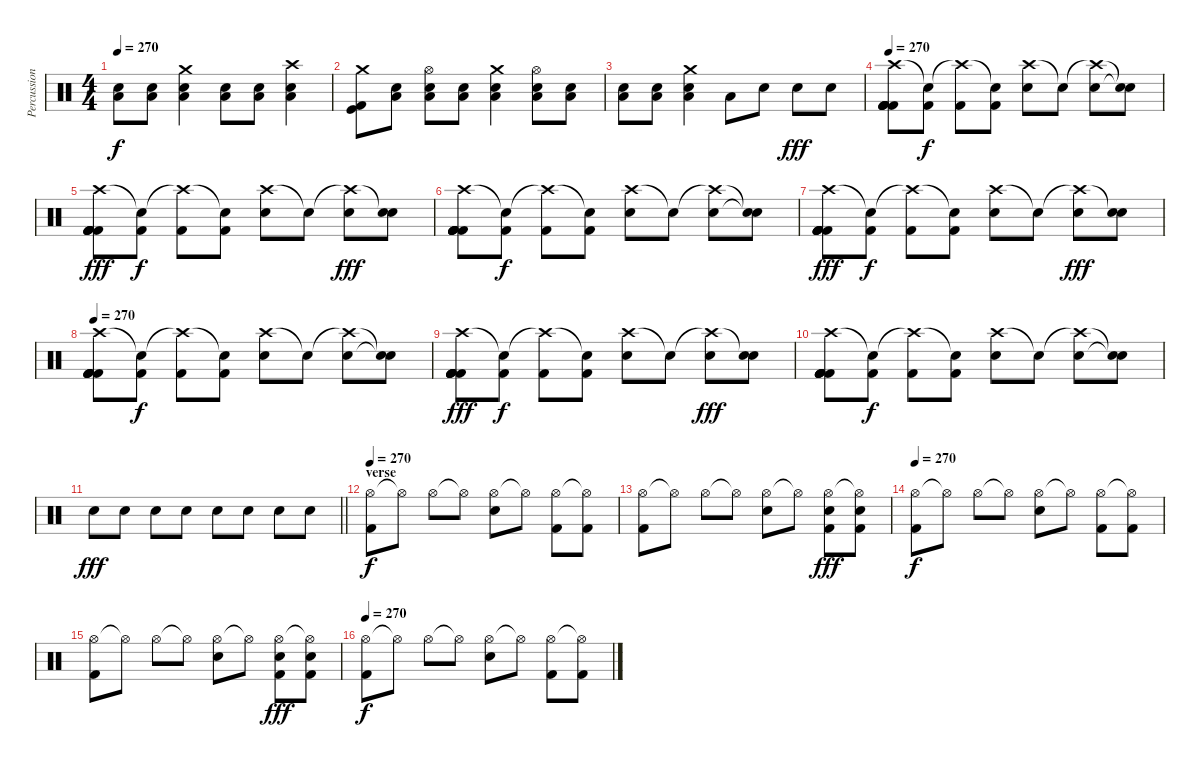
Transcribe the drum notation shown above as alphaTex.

\track ("Percussion" "Percussion") {instrument percussion}
\staff {score}
\articulation defaults
\ts (4 4)
\tempo 270
\clef neutral
\ks c
("Electric Snare (hit)" "Low Floor Tom (hit)").8{dy f} ("Electric Snare (hit)" "Low Floor Tom (hit)").8 ("Crash medium (hit)" "Electric Snare (hit)" "Low Floor Tom (hit)").4 ("Electric Snare (hit)" "Low Floor Tom (hit)").8 ("Electric Snare (hit)" "Low Floor Tom (hit)").8 ("Crash high (hit)" "Electric Snare (hit)" "Low Floor Tom (hit)").4 |
("Crash medium (hit)" "Kick (hit)" "Kick (hit) 2").8 ("Electric Snare (hit)" "Low Floor Tom (hit)").8 ("Hi-Hat (open)" "Electric Snare (hit)" "Low Floor Tom (hit)").8 ("Electric Snare (hit)" "Low Floor Tom (hit)").8 ("Crash medium (hit)" "Electric Snare (hit)" "Low Floor Tom (hit)").4 ("Hi-Hat (open)" "Electric Snare (hit)" "Low Floor Tom (hit)").8 ("Electric Snare (hit)" "Low Floor Tom (hit)").8 |
("Electric Snare (hit)" "Low Floor Tom (hit)").8 ("Electric Snare (hit)" "Low Floor Tom (hit)").8 ("Crash medium (hit)" "Electric Snare (hit)" "Low Floor Tom (hit)").4 "Low Floor Tom (hit)".8 "Electric Snare (hit)".8 "Electric Snare (hit)".8{dy fff} "Electric Snare (hit)".8 |
\tempo 270
("Crash high (hit)" "Kick (hit) 2" "Kick (hit) 2" "Kick (hit) 2" "Kick (hit) 2" "Kick (hit) 2").8 ("Snare (hit)"{t} "Kick (hit) 2").8{dy f} ("Crash high (hit)"{t} "Kick (hit) 2").8 ("Snare (hit)"{t} "Kick (hit) 2").8 ("Crash high (hit)" "Electric Snare (hit)").8 "Snare (hit)"{t}.8 ("Crash high (hit)"{t} "Electric Snare (hit)").8 ("Snare (hit)"{t} "Electric Snare (hit)"{t}).8 |
("Crash high (hit)" "Kick (hit) 2" "Kick (hit) 2" "Kick (hit) 2" "Kick (hit) 2" "Kick (hit) 2").8{dy fff} ("Snare (hit)"{t} "Kick (hit) 2").8{dy f} ("Crash high (hit)"{t} "Kick (hit) 2").8 ("Snare (hit)"{t} "Kick (hit) 2").8 ("Crash high (hit)" "Electric Snare (hit)").8 "Snare (hit)"{t}.8 ("Crash high (hit)"{t} "Electric Snare (hit)").8{dy fff} ("Snare (hit)"{t} "Electric Snare (hit)").8 |
("Crash high (hit)" "Kick (hit) 2" "Kick (hit) 2" "Kick (hit) 2" "Kick (hit) 2" "Kick (hit) 2").8 ("Snare (hit)"{t} "Kick (hit) 2").8{dy f} ("Crash high (hit)"{t} "Kick (hit) 2").8 ("Snare (hit)"{t} "Kick (hit) 2").8 ("Crash high (hit)" "Electric Snare (hit)").8 "Snare (hit)"{t}.8 ("Crash high (hit)"{t} "Electric Snare (hit)").8 ("Snare (hit)"{t} "Electric Snare (hit)"{t}).8 |
("Crash high (hit)" "Kick (hit) 2" "Kick (hit) 2" "Kick (hit) 2" "Kick (hit) 2" "Kick (hit) 2").8{dy fff} ("Snare (hit)"{t} "Kick (hit) 2").8{dy f} ("Crash high (hit)"{t} "Kick (hit) 2").8 ("Snare (hit)"{t} "Kick (hit) 2").8 ("Crash high (hit)" "Electric Snare (hit)").8 "Snare (hit)"{t}.8 ("Crash high (hit)"{t} "Electric Snare (hit)").8{dy fff} ("Snare (hit)"{t} "Electric Snare (hit)").8 |
\tempo 270
("Crash high (hit)" "Kick (hit) 2" "Kick (hit) 2" "Kick (hit) 2" "Kick (hit) 2" "Kick (hit) 2").8 ("Snare (hit)"{t} "Kick (hit) 2").8{dy f} ("Crash high (hit)"{t} "Kick (hit) 2").8 ("Snare (hit)"{t} "Kick (hit) 2").8 ("Crash high (hit)" "Electric Snare (hit)").8 "Snare (hit)"{t}.8 ("Crash high (hit)"{t} "Electric Snare (hit)").8 ("Snare (hit)"{t} "Electric Snare (hit)"{t}).8 |
("Crash high (hit)" "Kick (hit) 2" "Kick (hit) 2" "Kick (hit) 2" "Kick (hit) 2" "Kick (hit) 2").8{dy fff} ("Snare (hit)"{t} "Kick (hit) 2").8{dy f} ("Crash high (hit)"{t} "Kick (hit) 2").8 ("Snare (hit)"{t} "Kick (hit) 2").8 ("Crash high (hit)" "Electric Snare (hit)").8 "Snare (hit)"{t}.8 ("Crash high (hit)"{t} "Electric Snare (hit)").8{dy fff} ("Snare (hit)"{t} "Electric Snare (hit)").8 |
("Crash high (hit)" "Kick (hit) 2" "Kick (hit) 2" "Kick (hit) 2" "Kick (hit) 2" "Kick (hit) 2").8 ("Snare (hit)"{t} "Kick (hit) 2").8{dy f} ("Crash high (hit)"{t} "Kick (hit) 2").8 ("Snare (hit)"{t} "Kick (hit) 2").8 ("Crash high (hit)" "Electric Snare (hit)").8 "Snare (hit)"{t}.8 ("Crash high (hit)"{t} "Electric Snare (hit)").8 ("Snare (hit)"{t} "Electric Snare (hit)"{t}).8 |
\barLineRight lightlight "Electric Snare (hit)".8{dy fff} "Electric Snare (hit)".8 "Electric Snare (hit)".8 "Electric Snare (hit)".8 "Electric Snare (hit)".8 "Electric Snare (hit)".8 "Electric Snare (hit)".8 "Electric Snare (hit)".8
|
\section ("" "verse")
\tempo 270
("Hi-Hat (open)" "Kick (hit) 2").8{dy f} "Hi-Hat (open)"{t}.8 "Hi-Hat (open)".8 "Hi-Hat (open)"{t}.8 ("Hi-Hat (open)" "Electric Snare (hit)").8 "Hi-Hat (open)"{t}.8 ("Hi-Hat (open)" "Kick (hit) 2").8 ("Hi-Hat (open)"{t} "Kick (hit) 2").8 |
("Hi-Hat (open)" "Kick (hit) 2").8 "Hi-Hat (open)"{t}.8 "Hi-Hat (open)".8 "Hi-Hat (open)"{t}.8 ("Hi-Hat (open)" "Electric Snare (hit)").8 "Hi-Hat (open)"{t}.8 ("Hi-Hat (open)" "Electric Snare (hit)" "Kick (hit) 2").8{dy fff} ("Hi-Hat (open)"{t} "Electric Snare (hit)" "Kick (hit) 2").8 |
\tempo 270
("Hi-Hat (open)" "Kick (hit) 2").8{dy f} "Hi-Hat (open)"{t}.8 "Hi-Hat (open)".8 "Hi-Hat (open)"{t}.8 ("Hi-Hat (open)" "Electric Snare (hit)").8 "Hi-Hat (open)"{t}.8 ("Hi-Hat (open)" "Kick (hit) 2").8 ("Hi-Hat (open)"{t} "Kick (hit) 2").8 |
("Hi-Hat (open)" "Kick (hit) 2").8 "Hi-Hat (open)"{t}.8 "Hi-Hat (open)".8 "Hi-Hat (open)"{t}.8 ("Hi-Hat (open)" "Electric Snare (hit)").8 "Hi-Hat (open)"{t}.8 ("Hi-Hat (open)" "Electric Snare (hit)" "Kick (hit) 2").8{dy fff} ("Hi-Hat (open)"{t} "Electric Snare (hit)" "Kick (hit) 2").8 |
\tempo 270
("Hi-Hat (open)" "Kick (hit) 2").8{dy f} "Hi-Hat (open)"{t}.8 "Hi-Hat (open)".8 "Hi-Hat (open)"{t}.8 ("Hi-Hat (open)" "Electric Snare (hit)").8 "Hi-Hat (open)"{t}.8 ("Hi-Hat (open)" "Kick (hit) 2").8 ("Hi-Hat (open)"{t} "Kick (hit) 2").8
